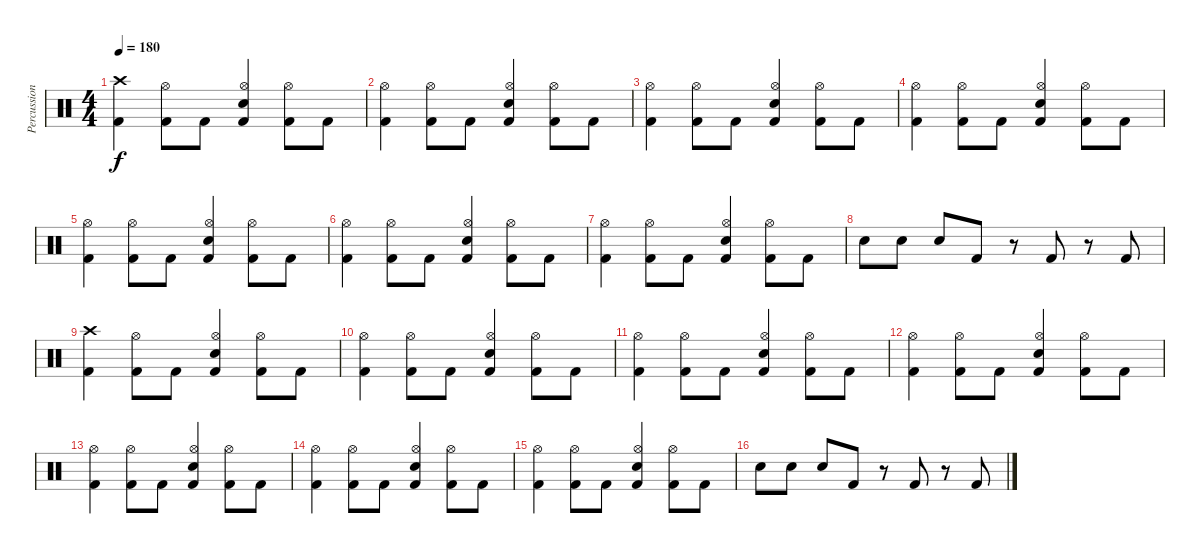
\track ("Percussion" "Percussion") {instrument percussion}
\staff {score}
\articulation defaults
\ts (4 4)
\tempo 180
\clef neutral
\ks c
("Kick (hit) 2" "Crash high (hit)").4{dy f} ("Kick (hit) 2" "Hi-Hat (open)").8 "Kick (hit) 2".8 ("Kick (hit) 2" "Hi-Hat (open)" "Electric Snare (hit)").4 ("Kick (hit) 2" "Hi-Hat (open)").8 "Kick (hit) 2".8 |
("Kick (hit) 2" "Hi-Hat (open)").4 ("Kick (hit) 2" "Hi-Hat (open)").8 "Kick (hit) 2".8 ("Kick (hit) 2" "Hi-Hat (open)" "Electric Snare (hit)").4 ("Kick (hit) 2" "Hi-Hat (open)").8 "Kick (hit) 2".8 |
("Kick (hit) 2" "Hi-Hat (open)").4 ("Kick (hit) 2" "Hi-Hat (open)").8 "Kick (hit) 2".8 ("Kick (hit) 2" "Hi-Hat (open)" "Electric Snare (hit)").4 ("Kick (hit) 2" "Hi-Hat (open)").8 "Kick (hit) 2".8 |
("Kick (hit) 2" "Hi-Hat (open)").4 ("Kick (hit) 2" "Hi-Hat (open)").8 "Kick (hit) 2".8 ("Kick (hit) 2" "Hi-Hat (open)" "Electric Snare (hit)").4 ("Kick (hit) 2" "Hi-Hat (open)").8 "Kick (hit) 2".8 |
("Kick (hit) 2" "Hi-Hat (open)").4 ("Kick (hit) 2" "Hi-Hat (open)").8 "Kick (hit) 2".8 ("Kick (hit) 2" "Hi-Hat (open)" "Electric Snare (hit)").4 ("Kick (hit) 2" "Hi-Hat (open)").8 "Kick (hit) 2".8 |
("Kick (hit) 2" "Hi-Hat (open)").4 ("Kick (hit) 2" "Hi-Hat (open)").8 "Kick (hit) 2".8 ("Kick (hit) 2" "Hi-Hat (open)" "Electric Snare (hit)").4 ("Kick (hit) 2" "Hi-Hat (open)").8 "Kick (hit) 2".8 |
("Kick (hit) 2" "Hi-Hat (open)").4 ("Kick (hit) 2" "Hi-Hat (open)").8 "Kick (hit) 2".8 ("Kick (hit) 2" "Hi-Hat (open)" "Electric Snare (hit)").4 ("Kick (hit) 2" "Hi-Hat (open)").8 "Kick (hit) 2".8 |
"Electric Snare (hit)".8 "Electric Snare (hit)".8 "Electric Snare (hit)".8 "Kick (hit) 2".8 r.8 "Kick (hit) 2".8 r.8 "Kick (hit) 2".8 |
("Kick (hit) 2" "Crash high (hit)").4 ("Kick (hit) 2" "Hi-Hat (open)").8 "Kick (hit) 2".8 ("Kick (hit) 2" "Hi-Hat (open)" "Electric Snare (hit)").4 ("Kick (hit) 2" "Hi-Hat (open)").8 "Kick (hit) 2".8 |
("Kick (hit) 2" "Hi-Hat (open)").4 ("Kick (hit) 2" "Hi-Hat (open)").8 "Kick (hit) 2".8 ("Kick (hit) 2" "Hi-Hat (open)" "Electric Snare (hit)").4 ("Kick (hit) 2" "Hi-Hat (open)").8 "Kick (hit) 2".8 |
("Kick (hit) 2" "Hi-Hat (open)").4 ("Kick (hit) 2" "Hi-Hat (open)").8 "Kick (hit) 2".8 ("Kick (hit) 2" "Hi-Hat (open)" "Electric Snare (hit)").4 ("Kick (hit) 2" "Hi-Hat (open)").8 "Kick (hit) 2".8 |
("Kick (hit) 2" "Hi-Hat (open)").4 ("Kick (hit) 2" "Hi-Hat (open)").8 "Kick (hit) 2".8 ("Kick (hit) 2" "Hi-Hat (open)" "Electric Snare (hit)").4 ("Kick (hit) 2" "Hi-Hat (open)").8 "Kick (hit) 2".8 |
("Kick (hit) 2" "Hi-Hat (open)").4 ("Kick (hit) 2" "Hi-Hat (open)").8 "Kick (hit) 2".8 ("Kick (hit) 2" "Hi-Hat (open)" "Electric Snare (hit)").4 ("Kick (hit) 2" "Hi-Hat (open)").8 "Kick (hit) 2".8 |
("Kick (hit) 2" "Hi-Hat (open)").4 ("Kick (hit) 2" "Hi-Hat (open)").8 "Kick (hit) 2".8 ("Kick (hit) 2" "Hi-Hat (open)" "Electric Snare (hit)").4 ("Kick (hit) 2" "Hi-Hat (open)").8 "Kick (hit) 2".8 |
("Kick (hit) 2" "Hi-Hat (open)").4 ("Kick (hit) 2" "Hi-Hat (open)").8 "Kick (hit) 2".8 ("Kick (hit) 2" "Hi-Hat (open)" "Electric Snare (hit)").4 ("Kick (hit) 2" "Hi-Hat (open)").8 "Kick (hit) 2".8 |
"Electric Snare (hit)".8 "Electric Snare (hit)".8 "Electric Snare (hit)".8 "Kick (hit) 2".8 r.8 "Kick (hit) 2".8 r.8 "Kick (hit) 2".8
